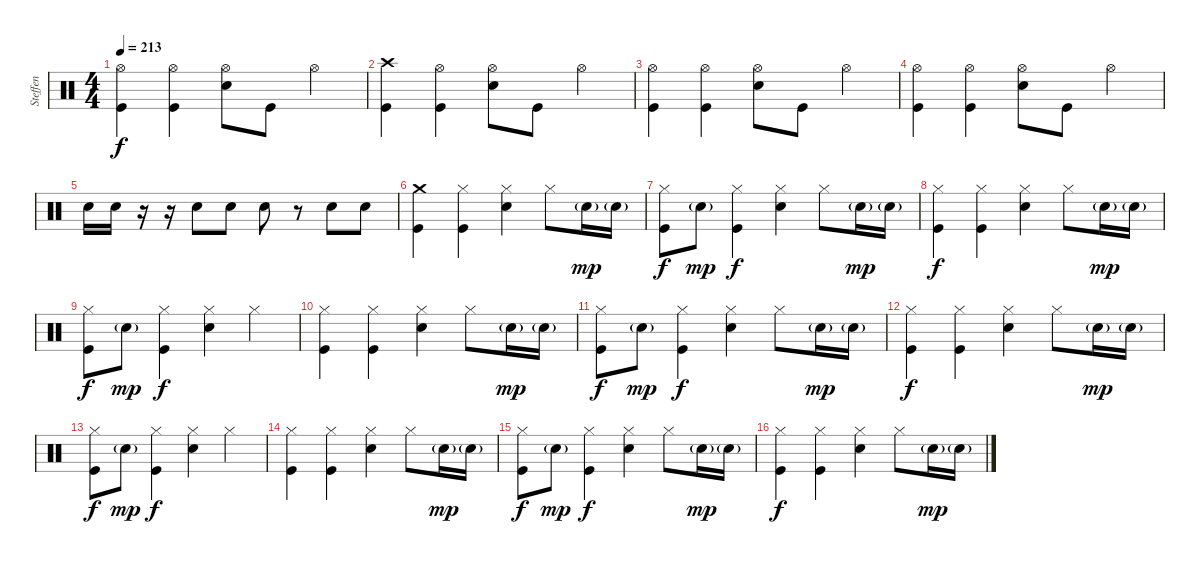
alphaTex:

\track ("Steffen" "Steffen") {instrument percussion}
\staff {score}
\articulation defaults
\ts (4 4)
\tempo 213
\clef neutral
\ks c
("Hi-Hat (open)" "Kick (hit)").4{dy f} ("Hi-Hat (open)" "Kick (hit)").4 ("Hi-Hat (open)" "Snare (hit) 2").8 "Kick (hit)".8 "Hi-Hat (open)".4 |
("Crash high (hit)" "Kick (hit)").4 ("Hi-Hat (open)" "Kick (hit)").4 ("Hi-Hat (open)" "Snare (hit) 2").8 "Kick (hit)".8 "Hi-Hat (open)".4 |
("Hi-Hat (open)" "Kick (hit)").4 ("Hi-Hat (open)" "Kick (hit)").4 ("Hi-Hat (open)" "Snare (hit) 2").8 "Kick (hit)".8 "Hi-Hat (open)".4 |
("Hi-Hat (open)" "Kick (hit)").4 ("Hi-Hat (open)" "Kick (hit)").4 ("Hi-Hat (open)" "Snare (hit) 2").8 "Kick (hit)".8 "Hi-Hat (open)".4 |
"Snare (hit) 2".16 "Snare (hit) 2".16 r.16 r.16 "Snare (hit) 2".8 "Snare (hit) 2".8 "Snare (hit) 2".8 r.8 "Snare (hit) 2".8 "Snare (hit) 2".8 |
("Crash medium (hit)" "Kick (hit)").4 ("Hi-Hat (closed)" "Kick (hit)").4 ("Hi-Hat (closed)" "Snare (hit) 2").4 "Hi-Hat (closed)".8 "Snare (hit) 2"{g}.16{dy mp} "Snare (hit) 2"{g}.16 |
("Hi-Hat (closed)" "Kick (hit)").8{dy f} "Snare (hit) 2"{g}.8{dy mp} ("Hi-Hat (closed)" "Kick (hit)").4{dy f} ("Hi-Hat (closed)" "Snare (hit) 2").4 "Hi-Hat (closed)".8 "Snare (hit) 2"{g}.16{dy mp} "Snare (hit) 2"{g}.16 |
("Hi-Hat (closed)" "Kick (hit)").4{dy f} ("Hi-Hat (closed)" "Kick (hit)").4 ("Hi-Hat (closed)" "Snare (hit) 2").4 "Hi-Hat (closed)".8 "Snare (hit) 2"{g}.16{dy mp} "Snare (hit) 2"{g}.16 |
("Hi-Hat (closed)" "Kick (hit)").8{dy f} "Snare (hit) 2"{g}.8{dy mp} ("Hi-Hat (closed)" "Kick (hit)").4{dy f} ("Hi-Hat (closed)" "Snare (hit) 2").4 "Hi-Hat (closed)".4 |
("Hi-Hat (closed)" "Kick (hit)").4 ("Hi-Hat (closed)" "Kick (hit)").4 ("Hi-Hat (closed)" "Snare (hit) 2").4 "Hi-Hat (closed)".8 "Snare (hit) 2"{g}.16{dy mp} "Snare (hit) 2"{g}.16 |
("Hi-Hat (closed)" "Kick (hit)").8{dy f} "Snare (hit) 2"{g}.8{dy mp} ("Hi-Hat (closed)" "Kick (hit)").4{dy f} ("Hi-Hat (closed)" "Snare (hit) 2").4 "Hi-Hat (closed)".8 "Snare (hit) 2"{g}.16{dy mp} "Snare (hit) 2"{g}.16 |
("Hi-Hat (closed)" "Kick (hit)").4{dy f} ("Hi-Hat (closed)" "Kick (hit)").4 ("Hi-Hat (closed)" "Snare (hit) 2").4 "Hi-Hat (closed)".8 "Snare (hit) 2"{g}.16{dy mp} "Snare (hit) 2"{g}.16 |
("Hi-Hat (closed)" "Kick (hit)").8{dy f} "Snare (hit) 2"{g}.8{dy mp} ("Hi-Hat (closed)" "Kick (hit)").4{dy f} ("Hi-Hat (closed)" "Snare (hit) 2").4 "Hi-Hat (closed)".4 |
("Hi-Hat (closed)" "Kick (hit)").4 ("Hi-Hat (closed)" "Kick (hit)").4 ("Hi-Hat (closed)" "Snare (hit) 2").4 "Hi-Hat (closed)".8 "Snare (hit) 2"{g}.16{dy mp} "Snare (hit) 2"{g}.16 |
("Hi-Hat (closed)" "Kick (hit)").8{dy f} "Snare (hit) 2"{g}.8{dy mp} ("Hi-Hat (closed)" "Kick (hit)").4{dy f} ("Hi-Hat (closed)" "Snare (hit) 2").4 "Hi-Hat (closed)".8 "Snare (hit) 2"{g}.16{dy mp} "Snare (hit) 2"{g}.16 |
("Hi-Hat (closed)" "Kick (hit)").4{dy f} ("Hi-Hat (closed)" "Kick (hit)").4 ("Hi-Hat (closed)" "Snare (hit) 2").4 "Hi-Hat (closed)".8 "Snare (hit) 2"{g}.16{dy mp} "Snare (hit) 2"{g}.16
